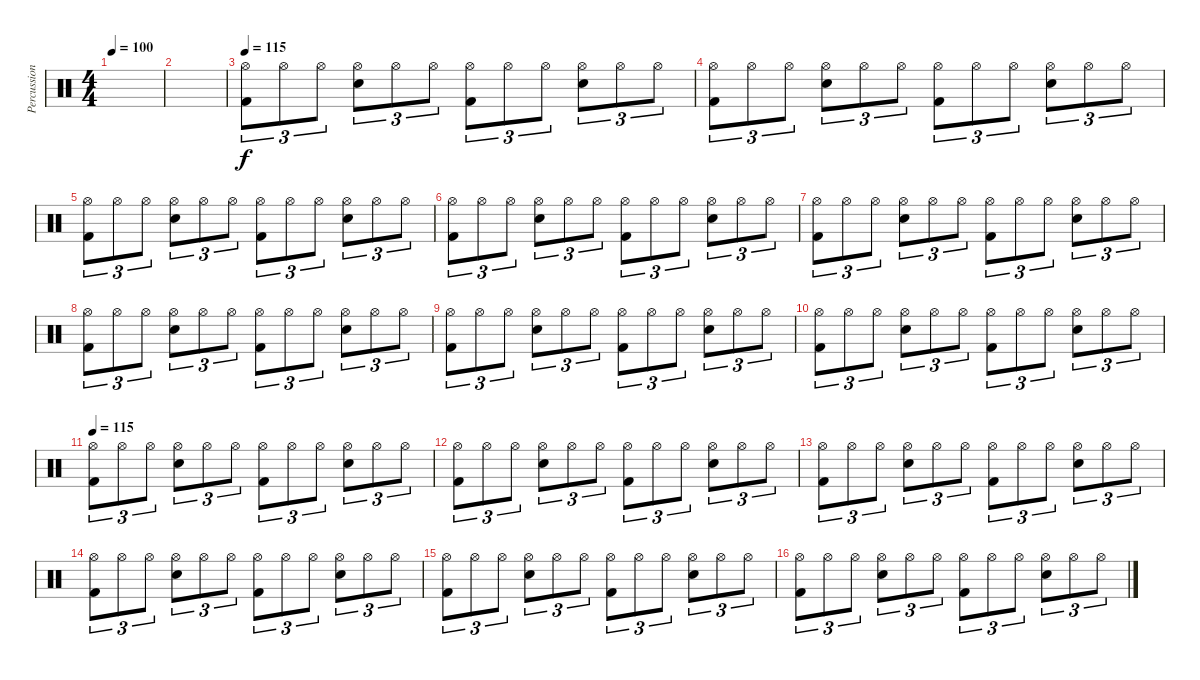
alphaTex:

\track ("Percussion" "Percussion") {instrument percussion}
\staff {score}
\articulation defaults
\ts (4 4)
\tempo 100
\clef neutral
\ks c
|
|
\tempo 115
("Hi-Hat (open)" "Kick (hit) 2").8{tu (3 2)} "Hi-Hat (open)".8{tu (3 2)} "Hi-Hat (open)".8{tu (3 2)} ("Hi-Hat (open)" "Snare (hit) 2").8{tu (3 2)} "Hi-Hat (open)".8{tu (3 2)} "Hi-Hat (open)".8{tu (3 2)} ("Hi-Hat (open)" "Kick (hit) 2").8{tu (3 2)} "Hi-Hat (open)".8{tu (3 2)} "Hi-Hat (open)".8{tu (3 2)} ("Hi-Hat (open)" "Snare (hit) 2").8{tu (3 2)} "Hi-Hat (open)".8{tu (3 2)} "Hi-Hat (open)".8{tu (3 2)} |
("Hi-Hat (open)" "Kick (hit) 2").8{tu (3 2)} "Hi-Hat (open)".8{tu (3 2)} "Hi-Hat (open)".8{tu (3 2)} ("Hi-Hat (open)" "Snare (hit) 2").8{tu (3 2)} "Hi-Hat (open)".8{tu (3 2)} "Hi-Hat (open)".8{tu (3 2)} ("Hi-Hat (open)" "Kick (hit) 2").8{tu (3 2)} "Hi-Hat (open)".8{tu (3 2)} "Hi-Hat (open)".8{tu (3 2)} ("Hi-Hat (open)" "Snare (hit) 2").8{tu (3 2)} "Hi-Hat (open)".8{tu (3 2)} "Hi-Hat (open)".8{tu (3 2)} |
("Hi-Hat (open)" "Kick (hit) 2").8{tu (3 2)} "Hi-Hat (open)".8{tu (3 2)} "Hi-Hat (open)".8{tu (3 2)} ("Hi-Hat (open)" "Snare (hit) 2").8{tu (3 2)} "Hi-Hat (open)".8{tu (3 2)} "Hi-Hat (open)".8{tu (3 2)} ("Hi-Hat (open)" "Kick (hit) 2").8{tu (3 2)} "Hi-Hat (open)".8{tu (3 2)} "Hi-Hat (open)".8{tu (3 2)} ("Hi-Hat (open)" "Snare (hit) 2").8{tu (3 2)} "Hi-Hat (open)".8{tu (3 2)} "Hi-Hat (open)".8{tu (3 2)} |
("Hi-Hat (open)" "Kick (hit) 2").8{tu (3 2)} "Hi-Hat (open)".8{tu (3 2)} "Hi-Hat (open)".8{tu (3 2)} ("Hi-Hat (open)" "Snare (hit) 2").8{tu (3 2)} "Hi-Hat (open)".8{tu (3 2)} "Hi-Hat (open)".8{tu (3 2)} ("Hi-Hat (open)" "Kick (hit) 2").8{tu (3 2)} "Hi-Hat (open)".8{tu (3 2)} "Hi-Hat (open)".8{tu (3 2)} ("Hi-Hat (open)" "Snare (hit) 2").8{tu (3 2)} "Hi-Hat (open)".8{tu (3 2)} "Hi-Hat (open)".8{tu (3 2)} |
("Hi-Hat (open)" "Kick (hit) 2").8{tu (3 2)} "Hi-Hat (open)".8{tu (3 2)} "Hi-Hat (open)".8{tu (3 2)} ("Hi-Hat (open)" "Snare (hit) 2").8{tu (3 2)} "Hi-Hat (open)".8{tu (3 2)} "Hi-Hat (open)".8{tu (3 2)} ("Hi-Hat (open)" "Kick (hit) 2").8{tu (3 2)} "Hi-Hat (open)".8{tu (3 2)} "Hi-Hat (open)".8{tu (3 2)} ("Hi-Hat (open)" "Snare (hit) 2").8{tu (3 2)} "Hi-Hat (open)".8{tu (3 2)} "Hi-Hat (open)".8{tu (3 2)} |
("Hi-Hat (open)" "Kick (hit) 2").8{tu (3 2)} "Hi-Hat (open)".8{tu (3 2)} "Hi-Hat (open)".8{tu (3 2)} ("Hi-Hat (open)" "Snare (hit) 2").8{tu (3 2)} "Hi-Hat (open)".8{tu (3 2)} "Hi-Hat (open)".8{tu (3 2)} ("Hi-Hat (open)" "Kick (hit) 2").8{tu (3 2)} "Hi-Hat (open)".8{tu (3 2)} "Hi-Hat (open)".8{tu (3 2)} ("Hi-Hat (open)" "Snare (hit) 2").8{tu (3 2)} "Hi-Hat (open)".8{tu (3 2)} "Hi-Hat (open)".8{tu (3 2)} |
("Hi-Hat (open)" "Kick (hit) 2").8{tu (3 2)} "Hi-Hat (open)".8{tu (3 2)} "Hi-Hat (open)".8{tu (3 2)} ("Hi-Hat (open)" "Snare (hit) 2").8{tu (3 2)} "Hi-Hat (open)".8{tu (3 2)} "Hi-Hat (open)".8{tu (3 2)} ("Hi-Hat (open)" "Kick (hit) 2").8{tu (3 2)} "Hi-Hat (open)".8{tu (3 2)} "Hi-Hat (open)".8{tu (3 2)} ("Hi-Hat (open)" "Snare (hit) 2").8{tu (3 2)} "Hi-Hat (open)".8{tu (3 2)} "Hi-Hat (open)".8{tu (3 2)} |
("Hi-Hat (open)" "Kick (hit) 2").8{tu (3 2)} "Hi-Hat (open)".8{tu (3 2)} "Hi-Hat (open)".8{tu (3 2)} ("Hi-Hat (open)" "Snare (hit) 2").8{tu (3 2)} "Hi-Hat (open)".8{tu (3 2)} "Hi-Hat (open)".8{tu (3 2)} ("Hi-Hat (open)" "Kick (hit) 2").8{tu (3 2)} "Hi-Hat (open)".8{tu (3 2)} "Hi-Hat (open)".8{tu (3 2)} ("Hi-Hat (open)" "Snare (hit) 2").8{tu (3 2)} "Hi-Hat (open)".8{tu (3 2)} "Hi-Hat (open)".8{tu (3 2)} |
\tempo 115
("Hi-Hat (open)" "Kick (hit) 2").8{tu (3 2)} "Hi-Hat (open)".8{tu (3 2)} "Hi-Hat (open)".8{tu (3 2)} ("Hi-Hat (open)" "Snare (hit) 2").8{tu (3 2)} "Hi-Hat (open)".8{tu (3 2)} "Hi-Hat (open)".8{tu (3 2)} ("Hi-Hat (open)" "Kick (hit) 2").8{tu (3 2)} "Hi-Hat (open)".8{tu (3 2)} "Hi-Hat (open)".8{tu (3 2)} ("Hi-Hat (open)" "Snare (hit) 2").8{tu (3 2)} "Hi-Hat (open)".8{tu (3 2)} "Hi-Hat (open)".8{tu (3 2)} |
("Hi-Hat (open)" "Kick (hit) 2").8{tu (3 2)} "Hi-Hat (open)".8{tu (3 2)} "Hi-Hat (open)".8{tu (3 2)} ("Hi-Hat (open)" "Snare (hit) 2").8{tu (3 2)} "Hi-Hat (open)".8{tu (3 2)} "Hi-Hat (open)".8{tu (3 2)} ("Hi-Hat (open)" "Kick (hit) 2").8{tu (3 2)} "Hi-Hat (open)".8{tu (3 2)} "Hi-Hat (open)".8{tu (3 2)} ("Hi-Hat (open)" "Snare (hit) 2").8{tu (3 2)} "Hi-Hat (open)".8{tu (3 2)} "Hi-Hat (open)".8{tu (3 2)} |
("Hi-Hat (open)" "Kick (hit) 2").8{tu (3 2)} "Hi-Hat (open)".8{tu (3 2)} "Hi-Hat (open)".8{tu (3 2)} ("Hi-Hat (open)" "Snare (hit) 2").8{tu (3 2)} "Hi-Hat (open)".8{tu (3 2)} "Hi-Hat (open)".8{tu (3 2)} ("Hi-Hat (open)" "Kick (hit) 2").8{tu (3 2)} "Hi-Hat (open)".8{tu (3 2)} "Hi-Hat (open)".8{tu (3 2)} ("Hi-Hat (open)" "Snare (hit) 2").8{tu (3 2)} "Hi-Hat (open)".8{tu (3 2)} "Hi-Hat (open)".8{tu (3 2)} |
("Hi-Hat (open)" "Kick (hit) 2").8{tu (3 2)} "Hi-Hat (open)".8{tu (3 2)} "Hi-Hat (open)".8{tu (3 2)} ("Hi-Hat (open)" "Snare (hit) 2").8{tu (3 2)} "Hi-Hat (open)".8{tu (3 2)} "Hi-Hat (open)".8{tu (3 2)} ("Hi-Hat (open)" "Kick (hit) 2").8{tu (3 2)} "Hi-Hat (open)".8{tu (3 2)} "Hi-Hat (open)".8{tu (3 2)} ("Hi-Hat (open)" "Snare (hit) 2").8{tu (3 2)} "Hi-Hat (open)".8{tu (3 2)} "Hi-Hat (open)".8{tu (3 2)} |
("Hi-Hat (open)" "Kick (hit) 2").8{tu (3 2)} "Hi-Hat (open)".8{tu (3 2)} "Hi-Hat (open)".8{tu (3 2)} ("Hi-Hat (open)" "Snare (hit) 2").8{tu (3 2)} "Hi-Hat (open)".8{tu (3 2)} "Hi-Hat (open)".8{tu (3 2)} ("Hi-Hat (open)" "Kick (hit) 2").8{tu (3 2)} "Hi-Hat (open)".8{tu (3 2)} "Hi-Hat (open)".8{tu (3 2)} ("Hi-Hat (open)" "Snare (hit) 2").8{tu (3 2)} "Hi-Hat (open)".8{tu (3 2)} "Hi-Hat (open)".8{tu (3 2)} |
("Hi-Hat (open)" "Kick (hit) 2").8{tu (3 2)} "Hi-Hat (open)".8{tu (3 2)} "Hi-Hat (open)".8{tu (3 2)} ("Hi-Hat (open)" "Snare (hit) 2").8{tu (3 2)} "Hi-Hat (open)".8{tu (3 2)} "Hi-Hat (open)".8{tu (3 2)} ("Hi-Hat (open)" "Kick (hit) 2").8{tu (3 2)} "Hi-Hat (open)".8{tu (3 2)} "Hi-Hat (open)".8{tu (3 2)} ("Hi-Hat (open)" "Snare (hit) 2").8{tu (3 2)} "Hi-Hat (open)".8{tu (3 2)} "Hi-Hat (open)".8{tu (3 2)}
